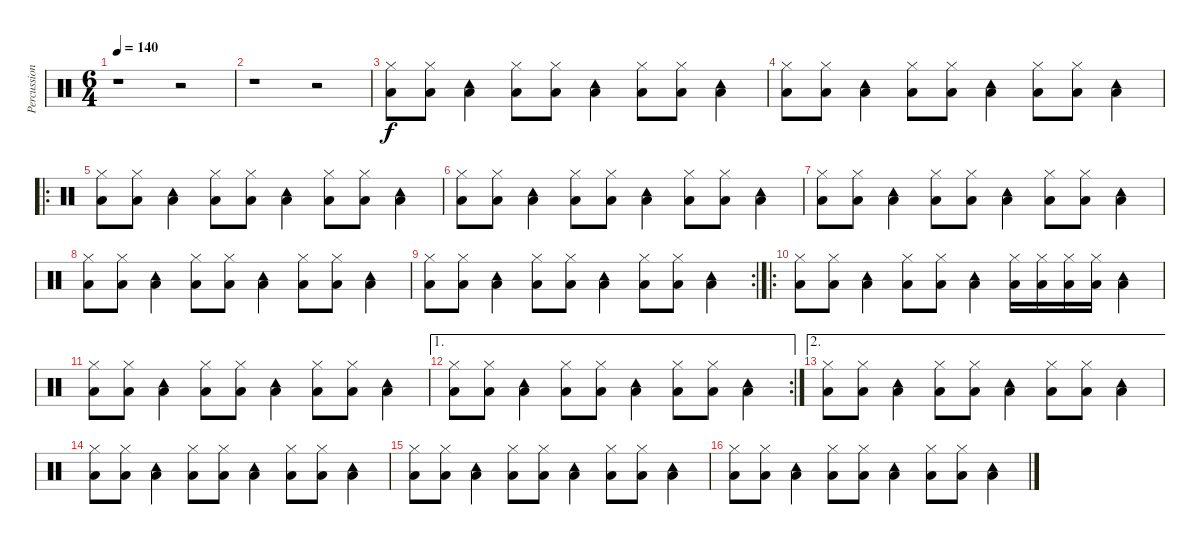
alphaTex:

\track ("Percussion" "Percussion") {instrument percussion}
\staff {score}
\articulation defaults
\ts (6 4)
\tempo 140
\clef neutral
\ks c
r.1{dy f} r.2 |
r.1 r.2 |
("Low Floor Tom (hit)" "Hi-Hat (closed)").8 ("Low Floor Tom (hit)" "Hi-Hat (closed)").8 ("Low Floor Tom (hit)" "Tambourine (hit)").4 ("Low Floor Tom (hit)" "Hi-Hat (closed)").8 ("Low Floor Tom (hit)" "Hi-Hat (closed)").8 ("Low Floor Tom (hit)" "Tambourine (hit)").4 ("Low Floor Tom (hit)" "Hi-Hat (closed)").8 ("Low Floor Tom (hit)" "Hi-Hat (closed)").8 ("Low Floor Tom (hit)" "Tambourine (hit)").4 |
("Low Floor Tom (hit)" "Hi-Hat (closed)").8 ("Low Floor Tom (hit)" "Hi-Hat (closed)").8 ("Low Floor Tom (hit)" "Tambourine (hit)").4 ("Low Floor Tom (hit)" "Hi-Hat (closed)").8 ("Low Floor Tom (hit)" "Hi-Hat (closed)").8 ("Low Floor Tom (hit)" "Tambourine (hit)").4 ("Low Floor Tom (hit)" "Hi-Hat (closed)").8 ("Low Floor Tom (hit)" "Hi-Hat (closed)").8 ("Low Floor Tom (hit)" "Tambourine (hit)").4 |
\ro
("Low Floor Tom (hit)" "Hi-Hat (closed)").8 ("Low Floor Tom (hit)" "Hi-Hat (closed)").8 ("Low Floor Tom (hit)" "Tambourine (hit)").4 ("Low Floor Tom (hit)" "Hi-Hat (closed)").8 ("Low Floor Tom (hit)" "Hi-Hat (closed)").8 ("Low Floor Tom (hit)" "Tambourine (hit)").4 ("Low Floor Tom (hit)" "Hi-Hat (closed)").8 ("Low Floor Tom (hit)" "Hi-Hat (closed)").8 ("Low Floor Tom (hit)" "Tambourine (hit)").4 |
("Low Floor Tom (hit)" "Hi-Hat (closed)").8 ("Low Floor Tom (hit)" "Hi-Hat (closed)").8 ("Low Floor Tom (hit)" "Tambourine (hit)").4 ("Low Floor Tom (hit)" "Hi-Hat (closed)").8 ("Low Floor Tom (hit)" "Hi-Hat (closed)").8 ("Low Floor Tom (hit)" "Tambourine (hit)").4 ("Low Floor Tom (hit)" "Hi-Hat (closed)").8 ("Low Floor Tom (hit)" "Hi-Hat (closed)").8 ("Low Floor Tom (hit)" "Tambourine (hit)").4 |
("Low Floor Tom (hit)" "Hi-Hat (closed)").8 ("Low Floor Tom (hit)" "Hi-Hat (closed)").8 ("Low Floor Tom (hit)" "Tambourine (hit)").4 ("Low Floor Tom (hit)" "Hi-Hat (closed)").8 ("Low Floor Tom (hit)" "Hi-Hat (closed)").8 ("Low Floor Tom (hit)" "Tambourine (hit)").4 ("Low Floor Tom (hit)" "Hi-Hat (closed)").8 ("Low Floor Tom (hit)" "Hi-Hat (closed)").8 ("Low Floor Tom (hit)" "Tambourine (hit)").4 |
("Low Floor Tom (hit)" "Hi-Hat (closed)").8 ("Low Floor Tom (hit)" "Hi-Hat (closed)").8 ("Low Floor Tom (hit)" "Tambourine (hit)").4 ("Low Floor Tom (hit)" "Hi-Hat (closed)").8 ("Low Floor Tom (hit)" "Hi-Hat (closed)").8 ("Low Floor Tom (hit)" "Tambourine (hit)").4 ("Low Floor Tom (hit)" "Hi-Hat (closed)").8 ("Low Floor Tom (hit)" "Hi-Hat (closed)").8 ("Low Floor Tom (hit)" "Tambourine (hit)").4 |
\rc 2
("Low Floor Tom (hit)" "Hi-Hat (closed)").8 ("Low Floor Tom (hit)" "Hi-Hat (closed)").8 ("Low Floor Tom (hit)" "Tambourine (hit)").4 ("Low Floor Tom (hit)" "Hi-Hat (closed)").8 ("Low Floor Tom (hit)" "Hi-Hat (closed)").8 ("Low Floor Tom (hit)" "Tambourine (hit)").4 ("Low Floor Tom (hit)" "Hi-Hat (closed)").8 ("Low Floor Tom (hit)" "Hi-Hat (closed)").8 ("Low Floor Tom (hit)" "Tambourine (hit)").4 |
\ro
("Low Floor Tom (hit)" "Hi-Hat (closed)").8 ("Low Floor Tom (hit)" "Hi-Hat (closed)").8 ("Low Floor Tom (hit)" "Tambourine (hit)").4 ("Low Floor Tom (hit)" "Hi-Hat (closed)").8 ("Low Floor Tom (hit)" "Hi-Hat (closed)").8 ("Low Floor Tom (hit)" "Tambourine (hit)").4 ("Low Floor Tom (hit)" "Hi-Hat (closed)").16 ("Low Floor Tom (hit)" "Hi-Hat (closed)").16 ("Low Floor Tom (hit)" "Hi-Hat (closed)").16 ("Low Floor Tom (hit)" "Hi-Hat (closed)").16 ("Low Floor Tom (hit)" "Tambourine (hit)").4 |
("Low Floor Tom (hit)" "Hi-Hat (closed)").8 ("Low Floor Tom (hit)" "Hi-Hat (closed)").8 ("Low Floor Tom (hit)" "Tambourine (hit)").4 ("Low Floor Tom (hit)" "Hi-Hat (closed)").8 ("Low Floor Tom (hit)" "Hi-Hat (closed)").8 ("Low Floor Tom (hit)" "Tambourine (hit)").4 ("Low Floor Tom (hit)" "Hi-Hat (closed)").8 ("Low Floor Tom (hit)" "Hi-Hat (closed)").8 ("Low Floor Tom (hit)" "Tambourine (hit)").4 |
\ae 1
\rc 2
("Low Floor Tom (hit)" "Hi-Hat (closed)").8 ("Low Floor Tom (hit)" "Hi-Hat (closed)").8 ("Low Floor Tom (hit)" "Tambourine (hit)").4 ("Low Floor Tom (hit)" "Hi-Hat (closed)").8 ("Low Floor Tom (hit)" "Hi-Hat (closed)").8 ("Low Floor Tom (hit)" "Tambourine (hit)").4 ("Low Floor Tom (hit)" "Hi-Hat (closed)").8 ("Low Floor Tom (hit)" "Hi-Hat (closed)").8 ("Low Floor Tom (hit)" "Tambourine (hit)").4 |
\ae 2
("Low Floor Tom (hit)" "Hi-Hat (closed)").8 ("Low Floor Tom (hit)" "Hi-Hat (closed)").8 ("Low Floor Tom (hit)" "Tambourine (hit)").4 ("Low Floor Tom (hit)" "Hi-Hat (closed)").8 ("Low Floor Tom (hit)" "Hi-Hat (closed)").8 ("Low Floor Tom (hit)" "Tambourine (hit)").4 ("Low Floor Tom (hit)" "Hi-Hat (closed)").8 ("Low Floor Tom (hit)" "Hi-Hat (closed)").8 ("Low Floor Tom (hit)" "Tambourine (hit)").4 |
("Low Floor Tom (hit)" "Hi-Hat (closed)").8 ("Low Floor Tom (hit)" "Hi-Hat (closed)").8 ("Low Floor Tom (hit)" "Tambourine (hit)").4 ("Low Floor Tom (hit)" "Hi-Hat (closed)").8 ("Low Floor Tom (hit)" "Hi-Hat (closed)").8 ("Low Floor Tom (hit)" "Tambourine (hit)").4 ("Low Floor Tom (hit)" "Hi-Hat (closed)").8 ("Low Floor Tom (hit)" "Hi-Hat (closed)").8 ("Low Floor Tom (hit)" "Tambourine (hit)").4 |
("Low Floor Tom (hit)" "Hi-Hat (closed)").8 ("Low Floor Tom (hit)" "Hi-Hat (closed)").8 ("Low Floor Tom (hit)" "Tambourine (hit)").4 ("Low Floor Tom (hit)" "Hi-Hat (closed)").8 ("Low Floor Tom (hit)" "Hi-Hat (closed)").8 ("Low Floor Tom (hit)" "Tambourine (hit)").4 ("Low Floor Tom (hit)" "Hi-Hat (closed)").8 ("Low Floor Tom (hit)" "Hi-Hat (closed)").8 ("Low Floor Tom (hit)" "Tambourine (hit)").4 |
("Low Floor Tom (hit)" "Hi-Hat (closed)").8 ("Low Floor Tom (hit)" "Hi-Hat (closed)").8 ("Low Floor Tom (hit)" "Tambourine (hit)").4 ("Low Floor Tom (hit)" "Hi-Hat (closed)").8 ("Low Floor Tom (hit)" "Hi-Hat (closed)").8 ("Low Floor Tom (hit)" "Tambourine (hit)").4 ("Low Floor Tom (hit)" "Hi-Hat (closed)").8 ("Low Floor Tom (hit)" "Hi-Hat (closed)").8 ("Low Floor Tom (hit)" "Tambourine (hit)").4
